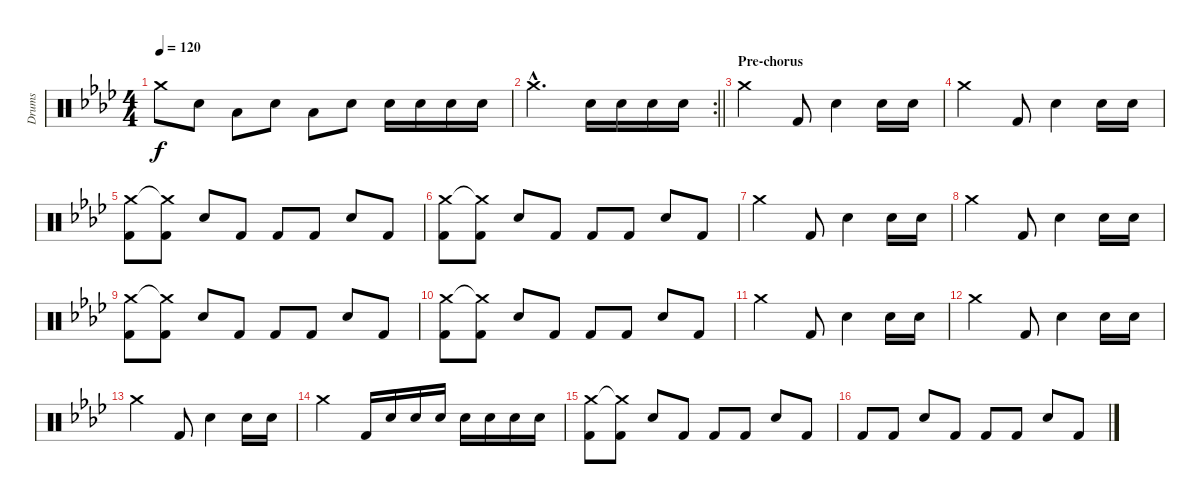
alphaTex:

\track ("Drums" "Drums") {instrument percussion}
\staff {score}
\articulation defaults
\ts (4 4)
\tempo 120
\clef neutral
\ks ab "Crash medium (hit)".8{dy f} "Electric Snare (hit)".8 "Low Tom (hit)".8 "Electric Snare (hit)".8 "Low Tom (hit)".8 "Electric Snare (hit)".8 "Electric Snare (hit)".16 "Electric Snare (hit)".16 "Electric Snare (hit)".16 "Electric Snare (hit)".16
|
\rc 2
\barLineRight lightlight "Crash medium (hit)"{hac}.2{d} "Electric Snare (hit)".16 "Electric Snare (hit)".16 "Electric Snare (hit)".16 "Electric Snare (hit)".16
|
\section ("" "Pre-chorus")
"Crash medium (hit)".2 "Kick (hit) 2".8 "Snare (hit) 2".4 "Electric Snare (hit)".16 "Electric Snare (hit)".16 |
"Crash medium (hit)".2 "Kick (hit) 2".8 "Snare (hit) 2".4 "Electric Snare (hit)".16 "Electric Snare (hit)".16 |
("Crash medium (hit)" "Kick (hit) 2").8 ("Crash medium (hit)"{t} "Kick (hit) 2").8 "Snare (hit) 2".8 "Kick (hit) 2".8 "Kick (hit) 2".8 "Kick (hit) 2".8 "Snare (hit) 2".8 "Kick (hit) 2".8 |
("Crash medium (hit)" "Kick (hit) 2").8 ("Crash medium (hit)"{t} "Kick (hit) 2").8 "Snare (hit) 2".8 "Kick (hit) 2".8 "Kick (hit) 2".8 "Kick (hit) 2".8 "Snare (hit) 2".8 "Kick (hit) 2".8 |
"Crash medium (hit)".2 "Kick (hit) 2".8 "Snare (hit) 2".4 "Electric Snare (hit)".16 "Electric Snare (hit)".16 |
"Crash medium (hit)".2 "Kick (hit) 2".8 "Snare (hit) 2".4 "Electric Snare (hit)".16 "Electric Snare (hit)".16 |
("Crash medium (hit)" "Kick (hit) 2").8 ("Crash medium (hit)"{t} "Kick (hit) 2").8 "Snare (hit) 2".8 "Kick (hit) 2".8 "Kick (hit) 2".8 "Kick (hit) 2".8 "Snare (hit) 2".8 "Kick (hit) 2".8 |
("Crash medium (hit)" "Kick (hit) 2").8 ("Crash medium (hit)"{t} "Kick (hit) 2").8 "Snare (hit) 2".8 "Kick (hit) 2".8 "Kick (hit) 2".8 "Kick (hit) 2".8 "Snare (hit) 2".8 "Kick (hit) 2".8 |
"Crash medium (hit)".2 "Kick (hit) 2".8 "Snare (hit) 2".4 "Electric Snare (hit)".16 "Electric Snare (hit)".16 |
"Crash medium (hit)".2 "Kick (hit) 2".8 "Snare (hit) 2".4 "Electric Snare (hit)".16 "Electric Snare (hit)".16 |
"Crash medium (hit)".2 "Kick (hit) 2".8 "Snare (hit) 2".4 "Electric Snare (hit)".16 "Electric Snare (hit)".16 |
"Crash medium (hit)".2 "Kick (hit) 2".16 "Electric Snare (hit)".16 "Electric Snare (hit)".16 "Electric Snare (hit)".16 "Electric Snare (hit)".16 "Electric Snare (hit)".16 "Electric Snare (hit)".16 "Electric Snare (hit)".16 |
("Crash medium (hit)" "Kick (hit) 2").8 ("Crash medium (hit)"{t} "Kick (hit) 2").8 "Snare (hit) 2".8 "Kick (hit) 2".8 "Kick (hit) 2".8 "Kick (hit) 2".8 "Snare (hit) 2".8 "Kick (hit) 2".8 |
"Kick (hit) 2".8 "Kick (hit) 2".8 "Snare (hit) 2".8 "Kick (hit) 2".8 "Kick (hit) 2".8 "Kick (hit) 2".8 "Snare (hit) 2".8 "Kick (hit) 2".8
